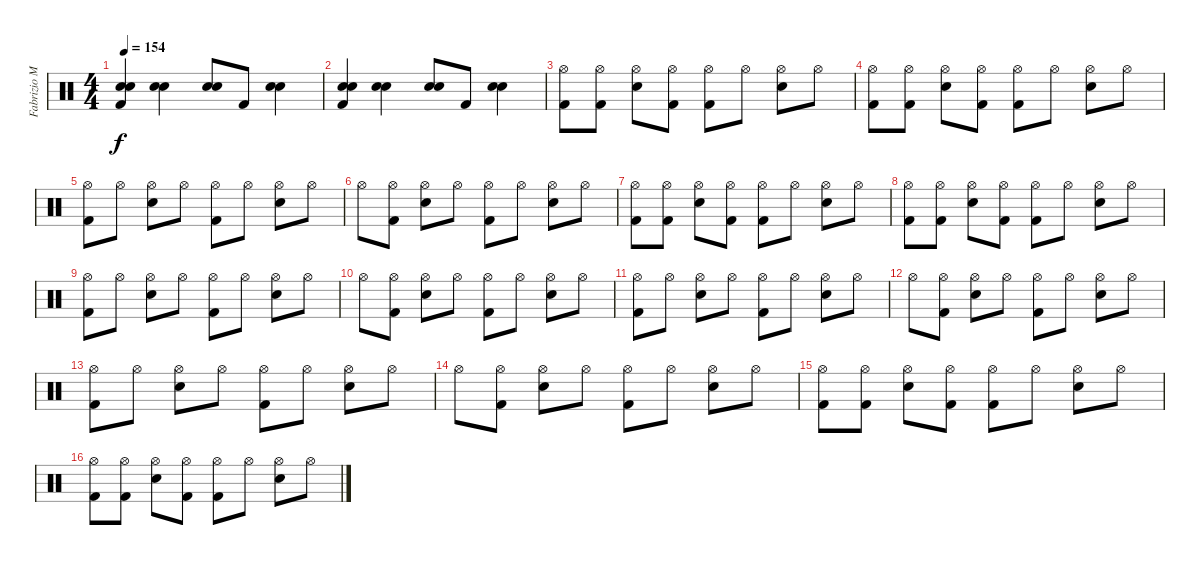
\track ("Fabrizio Moretti" "Fabrizio M") {instrument percussion}
\staff {score}
\articulation defaults
\ts (4 4)
\tempo 154
\clef neutral
\ks c
("Electric Snare (hit)" "Electric Snare (hit)" "Kick (hit) 2").4{dy f} ("Electric Snare (hit)" "Electric Snare (hit)").4 ("Electric Snare (hit)" "Electric Snare (hit)").8 "Kick (hit) 2".8 ("Electric Snare (hit)" "Electric Snare (hit)").4 |
("Electric Snare (hit)" "Electric Snare (hit)" "Kick (hit) 2").4 ("Electric Snare (hit)" "Electric Snare (hit)").4 ("Electric Snare (hit)" "Electric Snare (hit)").8 "Kick (hit) 2".8 ("Electric Snare (hit)" "Electric Snare (hit)").4 |
("Hi-Hat (open)" "Kick (hit) 2").8 ("Hi-Hat (open)" "Kick (hit) 2").8 ("Hi-Hat (open)" "Electric Snare (hit)").8 ("Hi-Hat (open)" "Kick (hit) 2").8 ("Hi-Hat (open)" "Kick (hit) 2").8 "Hi-Hat (open)".8 ("Hi-Hat (open)" "Electric Snare (hit)").8 "Hi-Hat (open)".8 |
("Hi-Hat (open)" "Kick (hit) 2").8 ("Hi-Hat (open)" "Kick (hit) 2").8 ("Hi-Hat (open)" "Electric Snare (hit)").8 ("Hi-Hat (open)" "Kick (hit) 2").8 ("Hi-Hat (open)" "Kick (hit) 2").8 "Hi-Hat (open)".8 ("Hi-Hat (open)" "Electric Snare (hit)").8 "Hi-Hat (open)".8 |
("Hi-Hat (open)" "Kick (hit) 2").8 "Hi-Hat (open)".8 ("Hi-Hat (open)" "Electric Snare (hit)").8 "Hi-Hat (open)".8 ("Hi-Hat (open)" "Kick (hit) 2").8 "Hi-Hat (open)".8 ("Hi-Hat (open)" "Electric Snare (hit)").8 "Hi-Hat (open)".8 |
"Hi-Hat (open)".8 ("Hi-Hat (open)" "Kick (hit) 2").8 ("Hi-Hat (open)" "Electric Snare (hit)").8 "Hi-Hat (open)".8 ("Hi-Hat (open)" "Kick (hit) 2").8 "Hi-Hat (open)".8 ("Hi-Hat (open)" "Electric Snare (hit)").8 "Hi-Hat (open)".8 |
("Hi-Hat (open)" "Kick (hit) 2").8 ("Hi-Hat (open)" "Kick (hit) 2").8 ("Hi-Hat (open)" "Electric Snare (hit)").8 ("Hi-Hat (open)" "Kick (hit) 2").8 ("Hi-Hat (open)" "Kick (hit) 2").8 "Hi-Hat (open)".8 ("Hi-Hat (open)" "Electric Snare (hit)").8 "Hi-Hat (open)".8 |
("Hi-Hat (open)" "Kick (hit) 2").8 ("Hi-Hat (open)" "Kick (hit) 2").8 ("Hi-Hat (open)" "Electric Snare (hit)").8 ("Hi-Hat (open)" "Kick (hit) 2").8 ("Hi-Hat (open)" "Kick (hit) 2").8 "Hi-Hat (open)".8 ("Hi-Hat (open)" "Electric Snare (hit)").8 "Hi-Hat (open)".8 |
("Hi-Hat (open)" "Kick (hit) 2").8 "Hi-Hat (open)".8 ("Hi-Hat (open)" "Electric Snare (hit)").8 "Hi-Hat (open)".8 ("Hi-Hat (open)" "Kick (hit) 2").8 "Hi-Hat (open)".8 ("Hi-Hat (open)" "Electric Snare (hit)").8 "Hi-Hat (open)".8 |
"Hi-Hat (open)".8 ("Hi-Hat (open)" "Kick (hit) 2").8 ("Hi-Hat (open)" "Electric Snare (hit)").8 "Hi-Hat (open)".8 ("Hi-Hat (open)" "Kick (hit) 2").8 "Hi-Hat (open)".8 ("Hi-Hat (open)" "Electric Snare (hit)").8 "Hi-Hat (open)".8 |
("Hi-Hat (open)" "Kick (hit) 2").8 "Hi-Hat (open)".8 ("Hi-Hat (open)" "Electric Snare (hit)").8 "Hi-Hat (open)".8 ("Hi-Hat (open)" "Kick (hit) 2").8 "Hi-Hat (open)".8 ("Hi-Hat (open)" "Electric Snare (hit)").8 "Hi-Hat (open)".8 |
"Hi-Hat (open)".8 ("Hi-Hat (open)" "Kick (hit) 2").8 ("Hi-Hat (open)" "Electric Snare (hit)").8 "Hi-Hat (open)".8 ("Hi-Hat (open)" "Kick (hit) 2").8 "Hi-Hat (open)".8 ("Hi-Hat (open)" "Electric Snare (hit)").8 "Hi-Hat (open)".8 |
("Hi-Hat (open)" "Kick (hit) 2").8 "Hi-Hat (open)".8 ("Hi-Hat (open)" "Electric Snare (hit)").8 "Hi-Hat (open)".8 ("Hi-Hat (open)" "Kick (hit) 2").8 "Hi-Hat (open)".8 ("Hi-Hat (open)" "Electric Snare (hit)").8 "Hi-Hat (open)".8 |
"Hi-Hat (open)".8 ("Hi-Hat (open)" "Kick (hit) 2").8 ("Hi-Hat (open)" "Electric Snare (hit)").8 "Hi-Hat (open)".8 ("Hi-Hat (open)" "Kick (hit) 2").8 "Hi-Hat (open)".8 ("Hi-Hat (open)" "Electric Snare (hit)").8 "Hi-Hat (open)".8 |
("Hi-Hat (open)" "Kick (hit) 2").8 ("Hi-Hat (open)" "Kick (hit) 2").8 ("Hi-Hat (open)" "Electric Snare (hit)").8 ("Hi-Hat (open)" "Kick (hit) 2").8 ("Hi-Hat (open)" "Kick (hit) 2").8 "Hi-Hat (open)".8 ("Hi-Hat (open)" "Electric Snare (hit)").8 "Hi-Hat (open)".8 |
("Hi-Hat (open)" "Kick (hit) 2").8 ("Hi-Hat (open)" "Kick (hit) 2").8 ("Hi-Hat (open)" "Electric Snare (hit)").8 ("Hi-Hat (open)" "Kick (hit) 2").8 ("Hi-Hat (open)" "Kick (hit) 2").8 "Hi-Hat (open)".8 ("Hi-Hat (open)" "Electric Snare (hit)").8 "Hi-Hat (open)".8
